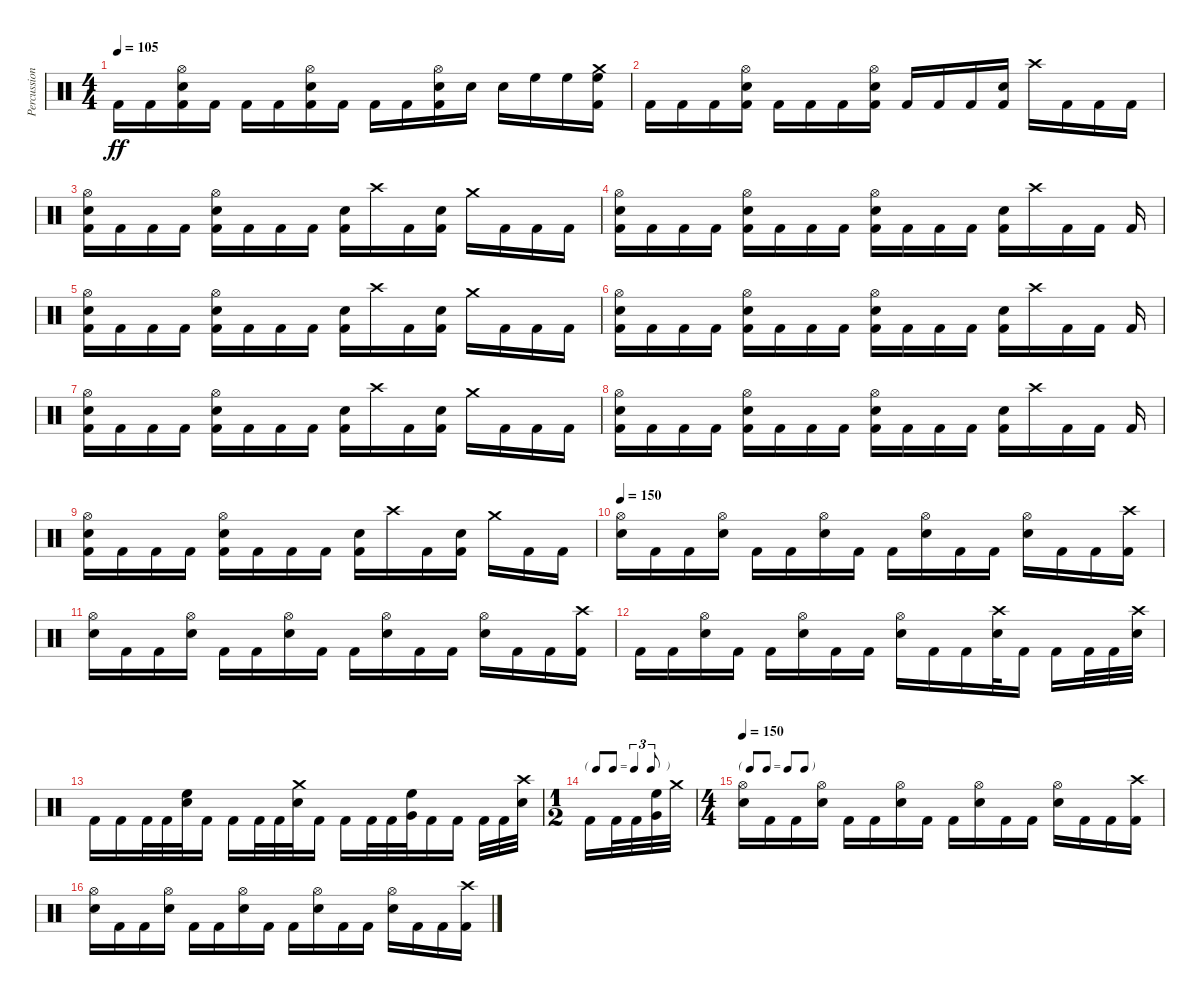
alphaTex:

\track ("Percussion" "Percussion") {instrument percussion}
\staff {score}
\articulation defaults
\ts (4 4)
\tempo 105
\clef neutral
\ks c "Kick (hit) 2".16{dy ff} "Kick (hit) 2".16
("Electric Snare (hit)" "Kick (hit) 2" "Hi-Hat (open)").16 "Kick (hit) 2".16 "Kick (hit) 2".16 "Kick (hit) 2".16 ("Electric Snare (hit)" "Hi-Hat (open)" "Kick (hit) 2").16 "Kick (hit) 2".16 "Kick (hit) 2".16 "Kick (hit) 2".16 ("Electric Snare (hit)" "Hi-Hat (open)" "Kick (hit) 2").16 "Electric Snare (hit)".16 "Electric Snare (hit)".16 "High Floor Tom (hit)".16 "High Floor Tom (hit)".16 ("High Floor Tom (hit)" "Crash medium (hit)" "Kick (hit) 2").16 |
"Kick (hit) 2".16 "Kick (hit) 2".16 "Kick (hit) 2".16 ("Electric Snare (hit)" "Kick (hit) 2" "Hi-Hat (open)").16 "Kick (hit) 2".16 "Kick (hit) 2".16 "Kick (hit) 2".16 ("Electric Snare (hit)" "Kick (hit) 2" "Hi-Hat (open)").16 "Kick (hit) 2".16 "Kick (hit) 2".16 "Kick (hit) 2".16 ("Electric Snare (hit)" "Kick (hit) 2").16 "Crash high (hit)".16 "Kick (hit) 2".16 "Kick (hit) 2".16 "Kick (hit) 2".16 |
("Electric Snare (hit)" "Kick (hit) 2" "Hi-Hat (open)").16 "Kick (hit) 2".16 "Kick (hit) 2".16 "Kick (hit) 2".16 ("Electric Snare (hit)" "Kick (hit) 2" "Hi-Hat (open)").16 "Kick (hit) 2".16 "Kick (hit) 2".16 "Kick (hit) 2".16 ("Electric Snare (hit)" "Kick (hit) 2").16 "Crash high (hit)".16 "Kick (hit) 2".16 ("Electric Snare (hit)" "Kick (hit) 2").16 "Crash medium (hit)".16 "Kick (hit) 2".16 "Kick (hit) 2".16 "Kick (hit) 2".16 |
("Electric Snare (hit)" "Kick (hit) 2" "Hi-Hat (open)").16 "Kick (hit) 2".16 "Kick (hit) 2".16 "Kick (hit) 2".16 ("Electric Snare (hit)" "Kick (hit) 2" "Hi-Hat (open)").16 "Kick (hit) 2".16 "Kick (hit) 2".16 "Kick (hit) 2".16 ("Electric Snare (hit)" "Kick (hit) 2" "Hi-Hat (open)").16 "Kick (hit) 2".16 "Kick (hit) 2".16 "Kick (hit) 2".16 ("Electric Snare (hit)" "Kick (hit) 2").16 "Crash high (hit)".16 "Kick (hit) 2".16 "Kick (hit) 2".16 "Kick (hit) 2".16 |
("Electric Snare (hit)" "Kick (hit) 2" "Hi-Hat (open)").16 "Kick (hit) 2".16 "Kick (hit) 2".16 "Kick (hit) 2".16 ("Electric Snare (hit)" "Kick (hit) 2" "Hi-Hat (open)").16 "Kick (hit) 2".16 "Kick (hit) 2".16 "Kick (hit) 2".16 ("Electric Snare (hit)" "Kick (hit) 2").16 "Crash high (hit)".16 "Kick (hit) 2".16 ("Electric Snare (hit)" "Kick (hit) 2").16 "Crash medium (hit)".16 "Kick (hit) 2".16 "Kick (hit) 2".16 "Kick (hit) 2".16 |
("Electric Snare (hit)" "Kick (hit) 2" "Hi-Hat (open)").16 "Kick (hit) 2".16 "Kick (hit) 2".16 "Kick (hit) 2".16 ("Electric Snare (hit)" "Kick (hit) 2" "Hi-Hat (open)").16 "Kick (hit) 2".16 "Kick (hit) 2".16 "Kick (hit) 2".16 ("Electric Snare (hit)" "Kick (hit) 2" "Hi-Hat (open)").16 "Kick (hit) 2".16 "Kick (hit) 2".16 "Kick (hit) 2".16 ("Electric Snare (hit)" "Kick (hit) 2").16 "Crash high (hit)".16 "Kick (hit) 2".16 "Kick (hit) 2".16 "Kick (hit) 2".16 |
("Electric Snare (hit)" "Kick (hit) 2" "Hi-Hat (open)").16 "Kick (hit) 2".16 "Kick (hit) 2".16 "Kick (hit) 2".16 ("Electric Snare (hit)" "Kick (hit) 2" "Hi-Hat (open)").16 "Kick (hit) 2".16 "Kick (hit) 2".16 "Kick (hit) 2".16 ("Electric Snare (hit)" "Kick (hit) 2").16 "Crash high (hit)".16 "Kick (hit) 2".16 ("Electric Snare (hit)" "Kick (hit) 2").16 "Crash medium (hit)".16 "Kick (hit) 2".16 "Kick (hit) 2".16 "Kick (hit) 2".16 |
("Electric Snare (hit)" "Kick (hit) 2" "Hi-Hat (open)").16 "Kick (hit) 2".16 "Kick (hit) 2".16 "Kick (hit) 2".16 ("Electric Snare (hit)" "Kick (hit) 2" "Hi-Hat (open)").16 "Kick (hit) 2".16 "Kick (hit) 2".16 "Kick (hit) 2".16 ("Electric Snare (hit)" "Kick (hit) 2" "Hi-Hat (open)").16 "Kick (hit) 2".16 "Kick (hit) 2".16 "Kick (hit) 2".16 ("Electric Snare (hit)" "Kick (hit) 2").16 "Crash high (hit)".16 "Kick (hit) 2".16 "Kick (hit) 2".16 "Kick (hit) 2".16 |
("Electric Snare (hit)" "Kick (hit) 2" "Hi-Hat (open)").16 "Kick (hit) 2".16 "Kick (hit) 2".16 "Kick (hit) 2".16 ("Electric Snare (hit)" "Kick (hit) 2" "Hi-Hat (open)").16 "Kick (hit) 2".16 "Kick (hit) 2".16 "Kick (hit) 2".16 ("Electric Snare (hit)" "Kick (hit) 2").16 "Crash high (hit)".16 "Kick (hit) 2".16 ("Electric Snare (hit)" "Kick (hit) 2").16 "Crash medium (hit)".16 "Kick (hit) 2".16 "Kick (hit) 2".16 |
\tempo 150
("Electric Snare (hit)" "Hi-Hat (open)").16 "Kick (hit) 2".16 "Kick (hit) 2".16 ("Electric Snare (hit)" "Hi-Hat (open)").16 "Kick (hit) 2".16 "Kick (hit) 2".16 ("Electric Snare (hit)" "Hi-Hat (open)").16 "Kick (hit) 2".16 "Kick (hit) 2".16 ("Electric Snare (hit)" "Hi-Hat (open)").16 "Kick (hit) 2".16 "Kick (hit) 2".16 ("Electric Snare (hit)" "Hi-Hat (open)").16 "Kick (hit) 2".16 "Kick (hit) 2".16 ("Kick (hit) 2" "Crash high (hit)").16 |
("Electric Snare (hit)" "Hi-Hat (open)").16 "Kick (hit) 2".16 "Kick (hit) 2".16 ("Electric Snare (hit)" "Hi-Hat (open)").16 "Kick (hit) 2".16 "Kick (hit) 2".16 ("Electric Snare (hit)" "Hi-Hat (open)").16 "Kick (hit) 2".16 "Kick (hit) 2".16 ("Electric Snare (hit)" "Hi-Hat (open)").16 "Kick (hit) 2".16 "Kick (hit) 2".16 ("Electric Snare (hit)" "Hi-Hat (open)").16 "Kick (hit) 2".16 "Kick (hit) 2".16 ("Kick (hit) 2" "Crash high (hit)").16 |
"Kick (hit) 2".16 "Kick (hit) 2".16 ("Electric Snare (hit)" "Hi-Hat (open)").16 "Kick (hit) 2".16 "Kick (hit) 2".16 ("Electric Snare (hit)" "Hi-Hat (open)").16 "Kick (hit) 2".16 "Kick (hit) 2".16 ("Electric Snare (hit)" "Hi-Hat (open)").16 "Kick (hit) 2".16 "Kick (hit) 2".16 ("Crash high (hit)" "Electric Snare (hit)").32 "Kick (hit) 2".16 "Kick (hit) 2".16 "Kick (hit) 2".32 "Kick (hit) 2".32 ("Crash high (hit)" "Electric Snare (hit)").32 |
"Kick (hit) 2".16 "Kick (hit) 2".16 "Kick (hit) 2".32 "Kick (hit) 2".32 ("High Floor Tom (hit)" "Electric Snare (hit)").32 "Kick (hit) 2".16 "Kick (hit) 2".16 "Kick (hit) 2".32 "Kick (hit) 2".32 ("Crash medium (hit)" "Electric Snare (hit)").32 "Kick (hit) 2".16 "Kick (hit) 2".16 "Kick (hit) 2".32 "Kick (hit) 2".32 ("High Floor Tom (hit)" "Very Low Tom (hit)").32 "Kick (hit) 2".16 "Kick (hit) 2".16 "Kick (hit) 2".32 "Kick (hit) 2".32 ("Crash high (hit)" "Electric Snare (hit)").32 |
\ts (1 2)
\tf triplet8th "Kick (hit) 2".16 "Kick (hit) 2".32 "Kick (hit) 2".32
("High Floor Tom (hit)" "Very Low Tom (hit)").32 "Crash medium (hit)".32 |
\ts (4 4)
\tf none
\tempo 150
("Electric Snare (hit)" "Hi-Hat (open)").16 "Kick (hit) 2".16 "Kick (hit) 2".16 ("Electric Snare (hit)" "Hi-Hat (open)").16 "Kick (hit) 2".16 "Kick (hit) 2".16 ("Electric Snare (hit)" "Hi-Hat (open)").16 "Kick (hit) 2".16 "Kick (hit) 2".16 ("Electric Snare (hit)" "Hi-Hat (open)").16 "Kick (hit) 2".16 "Kick (hit) 2".16 ("Electric Snare (hit)" "Hi-Hat (open)").16 "Kick (hit) 2".16 "Kick (hit) 2".16 ("Kick (hit) 2" "Crash high (hit)").16 |
("Electric Snare (hit)" "Hi-Hat (open)").16 "Kick (hit) 2".16 "Kick (hit) 2".16 ("Electric Snare (hit)" "Hi-Hat (open)").16 "Kick (hit) 2".16 "Kick (hit) 2".16 ("Electric Snare (hit)" "Hi-Hat (open)").16 "Kick (hit) 2".16 "Kick (hit) 2".16 ("Electric Snare (hit)" "Hi-Hat (open)").16 "Kick (hit) 2".16 "Kick (hit) 2".16 ("Electric Snare (hit)" "Hi-Hat (open)").16 "Kick (hit) 2".16 "Kick (hit) 2".16 ("Kick (hit) 2" "Crash high (hit)").16
